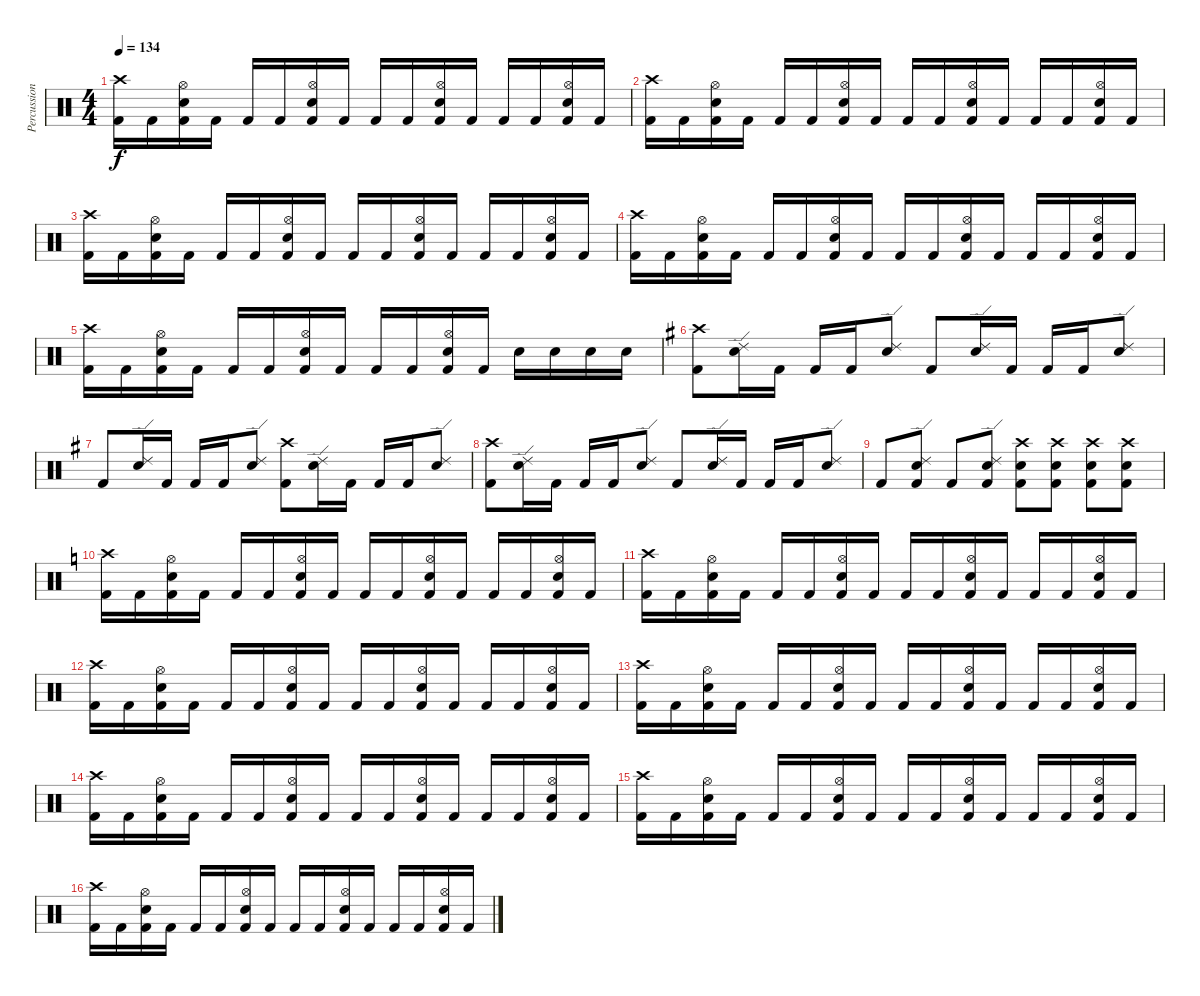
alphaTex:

\track ("Percussion" "Percussion") {instrument percussion}
\staff {score}
\articulation defaults
\ts (4 4)
\tempo 134
\clef neutral
\ks aminor
("Crash high (hit)" "Kick (hit) 2").16{dy f} "Kick (hit) 2".16 ("Hi-Hat (open)" "Electric Snare (hit)" "Kick (hit) 2").16 "Kick (hit) 2".16 "Kick (hit) 2".16 "Kick (hit) 2".16 ("Hi-Hat (open)" "Electric Snare (hit)" "Kick (hit) 2").16 "Kick (hit) 2".16 "Kick (hit) 2".16 "Kick (hit) 2".16 ("Hi-Hat (open)" "Electric Snare (hit)" "Kick (hit) 2").16 "Kick (hit) 2".16 "Kick (hit) 2".16 "Kick (hit) 2".16 ("Hi-Hat (open)" "Electric Snare (hit)" "Kick (hit) 2").16 "Kick (hit) 2".16 |
("Crash high (hit)" "Kick (hit) 2").16 "Kick (hit) 2".16 ("Hi-Hat (open)" "Electric Snare (hit)" "Kick (hit) 2").16 "Kick (hit) 2".16 "Kick (hit) 2".16 "Kick (hit) 2".16 ("Hi-Hat (open)" "Electric Snare (hit)" "Kick (hit) 2").16 "Kick (hit) 2".16 "Kick (hit) 2".16 "Kick (hit) 2".16 ("Hi-Hat (open)" "Electric Snare (hit)" "Kick (hit) 2").16 "Kick (hit) 2".16 "Kick (hit) 2".16 "Kick (hit) 2".16 ("Hi-Hat (open)" "Electric Snare (hit)" "Kick (hit) 2").16 "Kick (hit) 2".16 |
("Crash high (hit)" "Kick (hit) 2").16 "Kick (hit) 2".16 ("Hi-Hat (open)" "Electric Snare (hit)" "Kick (hit) 2").16 "Kick (hit) 2".16 "Kick (hit) 2".16 "Kick (hit) 2".16 ("Hi-Hat (open)" "Electric Snare (hit)" "Kick (hit) 2").16 "Kick (hit) 2".16 "Kick (hit) 2".16 "Kick (hit) 2".16 ("Hi-Hat (open)" "Electric Snare (hit)" "Kick (hit) 2").16 "Kick (hit) 2".16 "Kick (hit) 2".16 "Kick (hit) 2".16 ("Hi-Hat (open)" "Electric Snare (hit)" "Kick (hit) 2").16 "Kick (hit) 2".16 |
("Crash high (hit)" "Kick (hit) 2").16 "Kick (hit) 2".16 ("Hi-Hat (open)" "Electric Snare (hit)" "Kick (hit) 2").16 "Kick (hit) 2".16 "Kick (hit) 2".16 "Kick (hit) 2".16 ("Hi-Hat (open)" "Electric Snare (hit)" "Kick (hit) 2").16 "Kick (hit) 2".16 "Kick (hit) 2".16 "Kick (hit) 2".16 ("Hi-Hat (open)" "Electric Snare (hit)" "Kick (hit) 2").16 "Kick (hit) 2".16 "Kick (hit) 2".16 "Kick (hit) 2".16 ("Hi-Hat (open)" "Electric Snare (hit)" "Kick (hit) 2").16 "Kick (hit) 2".16 |
("Crash high (hit)" "Kick (hit) 2").16 "Kick (hit) 2".16 ("Hi-Hat (open)" "Electric Snare (hit)" "Kick (hit) 2").16 "Kick (hit) 2".16 "Kick (hit) 2".16 "Kick (hit) 2".16 ("Hi-Hat (open)" "Electric Snare (hit)" "Kick (hit) 2").16 "Kick (hit) 2".16 "Kick (hit) 2".16 "Kick (hit) 2".16 ("Hi-Hat (open)" "Electric Snare (hit)" "Kick (hit) 2").16 "Kick (hit) 2".16 "Electric Snare (hit)".16 "Electric Snare (hit)".16 "Electric Snare (hit)".16 "Electric Snare (hit)".16 |
\ks eminor
("Crash high (hit)" "Kick (hit) 2").8 ("Ride (edge) 2" "Electric Snare (hit)").16 "Kick (hit) 2".16 "Kick (hit) 2".16 "Kick (hit) 2".16 ("Ride (edge) 2" "Electric Snare (hit)").8 "Kick (hit) 2".8 ("Ride (edge) 2" "Electric Snare (hit)").16 "Kick (hit) 2".16 "Kick (hit) 2".16 "Kick (hit) 2".16 ("Ride (edge) 2" "Electric Snare (hit)").8 |
"Kick (hit) 2".8 ("Ride (edge) 2" "Electric Snare (hit)").16 "Kick (hit) 2".16 "Kick (hit) 2".16 "Kick (hit) 2".16 ("Ride (edge) 2" "Electric Snare (hit)").8 ("Crash high (hit)" "Kick (hit) 2").8 ("Ride (edge) 2" "Electric Snare (hit)").16 "Kick (hit) 2".16 "Kick (hit) 2".16 "Kick (hit) 2".16 ("Ride (edge) 2" "Electric Snare (hit)").8 |
("Crash high (hit)" "Kick (hit) 2").8 ("Ride (edge) 2" "Electric Snare (hit)").16 "Kick (hit) 2".16 "Kick (hit) 2".16 "Kick (hit) 2".16 ("Ride (edge) 2" "Electric Snare (hit)").8 "Kick (hit) 2".8 ("Ride (edge) 2" "Electric Snare (hit)").16 "Kick (hit) 2".16 "Kick (hit) 2".16 "Kick (hit) 2".16 ("Ride (edge) 2" "Electric Snare (hit)").8 |
"Kick (hit) 2".8 ("Ride (edge) 2" "Electric Snare (hit)" "Kick (hit) 2").8 "Kick (hit) 2".8 ("Ride (edge) 2" "Electric Snare (hit)" "Kick (hit) 2").8 ("Crash high (hit)" "Electric Snare (hit)" "Kick (hit) 2").8 ("Crash high (hit)" "Electric Snare (hit)" "Kick (hit) 2").8 ("Crash high (hit)" "Electric Snare (hit)" "Kick (hit) 2").8 ("Crash high (hit)" "Electric Snare (hit)" "Kick (hit) 2").8 |
\ks aminor
("Crash high (hit)" "Kick (hit) 2").16 "Kick (hit) 2".16 ("Hi-Hat (open)" "Electric Snare (hit)" "Kick (hit) 2").16 "Kick (hit) 2".16 "Kick (hit) 2".16 "Kick (hit) 2".16 ("Hi-Hat (open)" "Electric Snare (hit)" "Kick (hit) 2").16 "Kick (hit) 2".16 "Kick (hit) 2".16 "Kick (hit) 2".16 ("Hi-Hat (open)" "Electric Snare (hit)" "Kick (hit) 2").16 "Kick (hit) 2".16 "Kick (hit) 2".16 "Kick (hit) 2".16 ("Hi-Hat (open)" "Electric Snare (hit)" "Kick (hit) 2").16 "Kick (hit) 2".16 |
("Crash high (hit)" "Kick (hit) 2").16 "Kick (hit) 2".16 ("Hi-Hat (open)" "Electric Snare (hit)" "Kick (hit) 2").16 "Kick (hit) 2".16 "Kick (hit) 2".16 "Kick (hit) 2".16 ("Hi-Hat (open)" "Electric Snare (hit)" "Kick (hit) 2").16 "Kick (hit) 2".16 "Kick (hit) 2".16 "Kick (hit) 2".16 ("Hi-Hat (open)" "Electric Snare (hit)" "Kick (hit) 2").16 "Kick (hit) 2".16 "Kick (hit) 2".16 "Kick (hit) 2".16 ("Hi-Hat (open)" "Electric Snare (hit)" "Kick (hit) 2").16 "Kick (hit) 2".16 |
("Crash high (hit)" "Kick (hit) 2").16 "Kick (hit) 2".16 ("Hi-Hat (open)" "Electric Snare (hit)" "Kick (hit) 2").16 "Kick (hit) 2".16 "Kick (hit) 2".16 "Kick (hit) 2".16 ("Hi-Hat (open)" "Electric Snare (hit)" "Kick (hit) 2").16 "Kick (hit) 2".16 "Kick (hit) 2".16 "Kick (hit) 2".16 ("Hi-Hat (open)" "Electric Snare (hit)" "Kick (hit) 2").16 "Kick (hit) 2".16 "Kick (hit) 2".16 "Kick (hit) 2".16 ("Hi-Hat (open)" "Electric Snare (hit)" "Kick (hit) 2").16 "Kick (hit) 2".16 |
("Crash high (hit)" "Kick (hit) 2").16 "Kick (hit) 2".16 ("Hi-Hat (open)" "Electric Snare (hit)" "Kick (hit) 2").16 "Kick (hit) 2".16 "Kick (hit) 2".16 "Kick (hit) 2".16 ("Hi-Hat (open)" "Electric Snare (hit)" "Kick (hit) 2").16 "Kick (hit) 2".16 "Kick (hit) 2".16 "Kick (hit) 2".16 ("Hi-Hat (open)" "Electric Snare (hit)" "Kick (hit) 2").16 "Kick (hit) 2".16 "Kick (hit) 2".16 "Kick (hit) 2".16 ("Hi-Hat (open)" "Electric Snare (hit)" "Kick (hit) 2").16 "Kick (hit) 2".16 |
("Crash high (hit)" "Kick (hit) 2").16 "Kick (hit) 2".16 ("Hi-Hat (open)" "Electric Snare (hit)" "Kick (hit) 2").16 "Kick (hit) 2".16 "Kick (hit) 2".16 "Kick (hit) 2".16 ("Hi-Hat (open)" "Electric Snare (hit)" "Kick (hit) 2").16 "Kick (hit) 2".16 "Kick (hit) 2".16 "Kick (hit) 2".16 ("Hi-Hat (open)" "Electric Snare (hit)" "Kick (hit) 2").16 "Kick (hit) 2".16 "Kick (hit) 2".16 "Kick (hit) 2".16 ("Hi-Hat (open)" "Electric Snare (hit)" "Kick (hit) 2").16 "Kick (hit) 2".16 |
("Crash high (hit)" "Kick (hit) 2").16 "Kick (hit) 2".16 ("Hi-Hat (open)" "Electric Snare (hit)" "Kick (hit) 2").16 "Kick (hit) 2".16 "Kick (hit) 2".16 "Kick (hit) 2".16 ("Hi-Hat (open)" "Electric Snare (hit)" "Kick (hit) 2").16 "Kick (hit) 2".16 "Kick (hit) 2".16 "Kick (hit) 2".16 ("Hi-Hat (open)" "Electric Snare (hit)" "Kick (hit) 2").16 "Kick (hit) 2".16 "Kick (hit) 2".16 "Kick (hit) 2".16 ("Hi-Hat (open)" "Electric Snare (hit)" "Kick (hit) 2").16 "Kick (hit) 2".16 |
("Crash high (hit)" "Kick (hit) 2").16 "Kick (hit) 2".16 ("Hi-Hat (open)" "Electric Snare (hit)" "Kick (hit) 2").16 "Kick (hit) 2".16 "Kick (hit) 2".16 "Kick (hit) 2".16 ("Hi-Hat (open)" "Electric Snare (hit)" "Kick (hit) 2").16 "Kick (hit) 2".16 "Kick (hit) 2".16 "Kick (hit) 2".16 ("Hi-Hat (open)" "Electric Snare (hit)" "Kick (hit) 2").16 "Kick (hit) 2".16 "Kick (hit) 2".16 "Kick (hit) 2".16 ("Hi-Hat (open)" "Electric Snare (hit)" "Kick (hit) 2").16 "Kick (hit) 2".16
